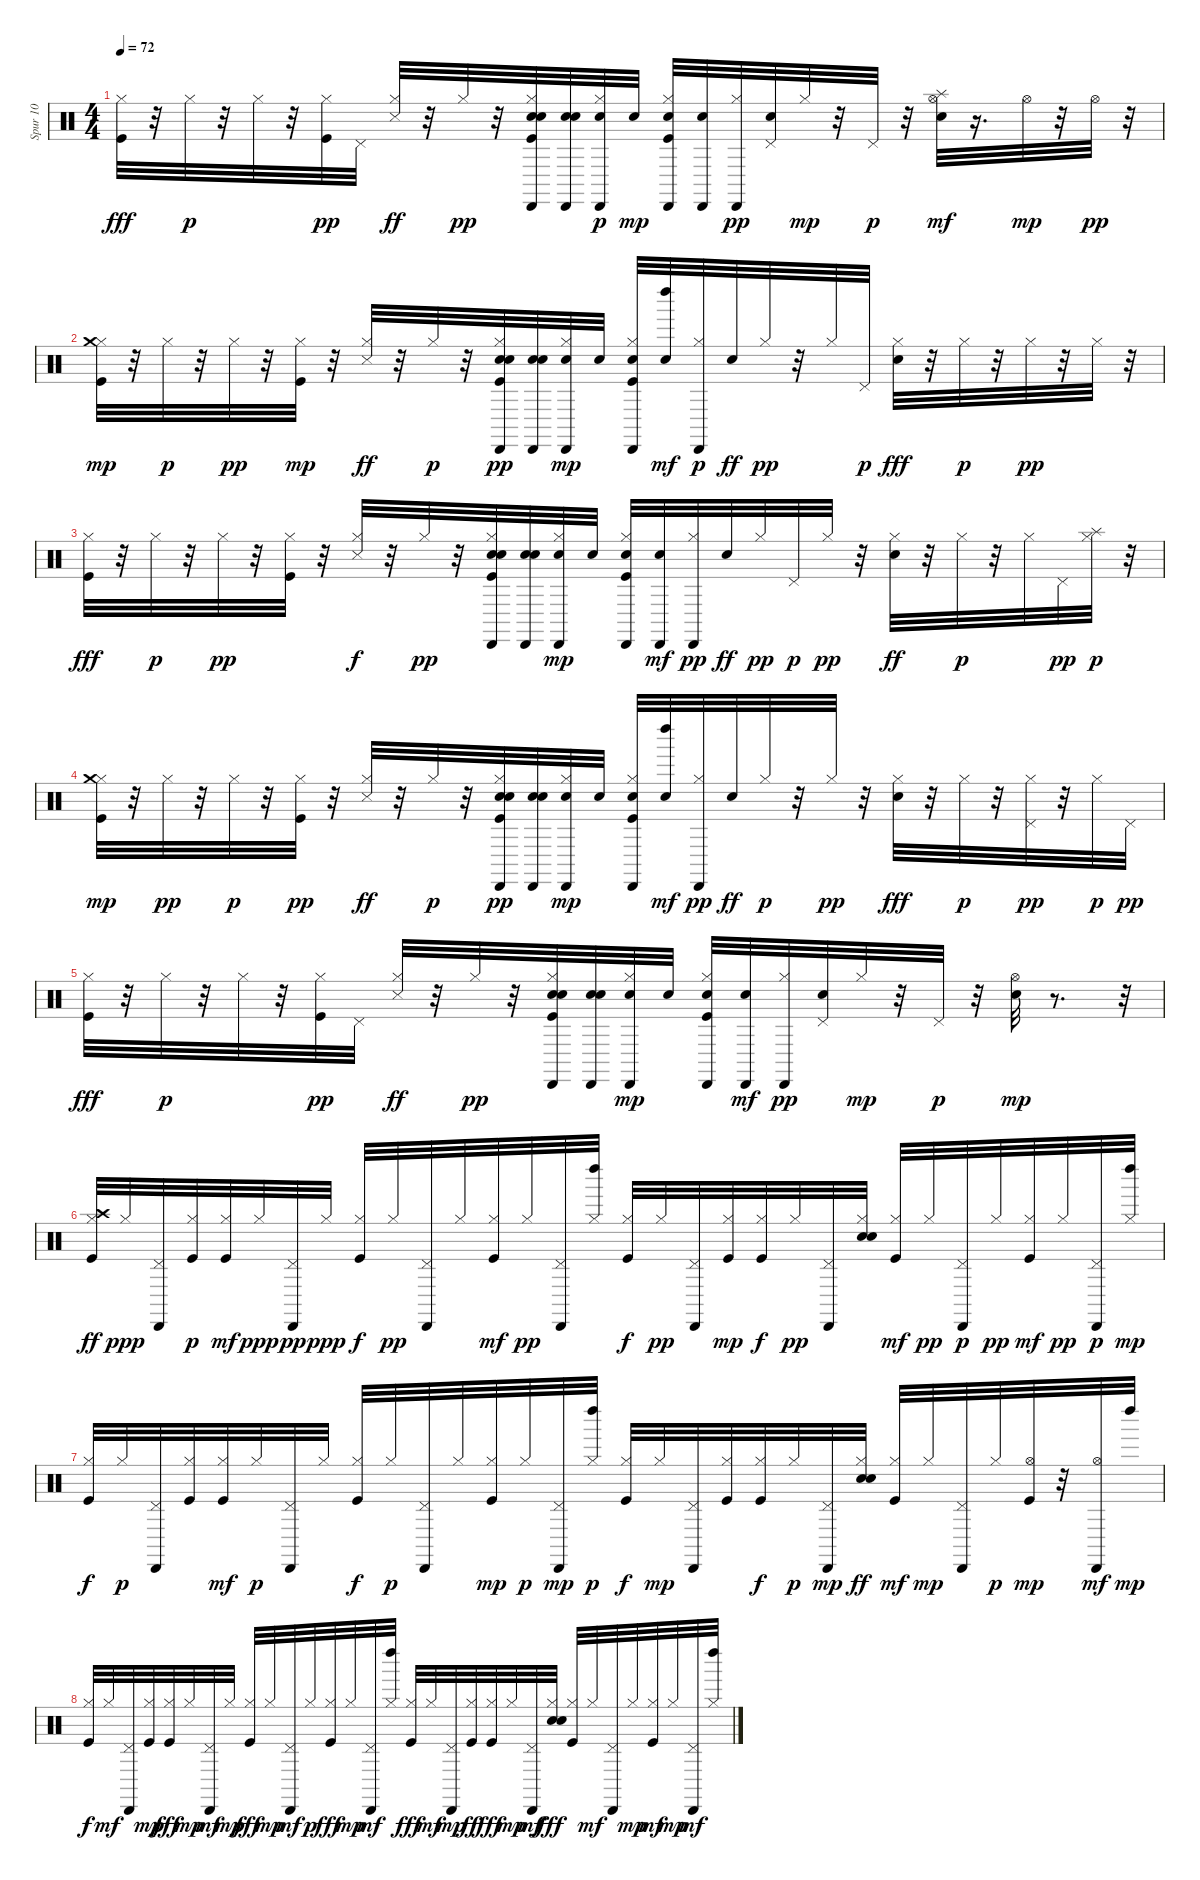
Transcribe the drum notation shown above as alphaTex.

\track ("Spur 10" "Spur 10") {instrument percussion}
\staff {score}
\articulation defaults
\ts (4 4)
\tempo 72
\clef neutral
\ks c
("Kick (hit)" "Hi-Hat (closed)").32{dy fff} r.32 "Hi-Hat (closed)".32{dy p} r.32 "Hi-Hat (closed)".32 r.32 ("Kick (hit)" "Hi-Hat (closed)").32{dy pp} "Pedal Hi-Hat (hit)".32 ("Hi-Hat (closed)" "Snare (side stick) 3").32{dy ff} r.32 "Hi-Hat (closed)".32{dy pp} r.32 ("Snare (hit) 2" "Kick (hit)" "Hi-Hat (closed)" "Cabasa (hit)" "Snare (hit) 2").32 ("Cabasa (hit)" "Snare (hit) 2" "Snare (hit) 2").32 ("Hi-Hat (closed)" "Cabasa (hit)" "Snare (hit) 2").32{dy p} "Snare (hit) 2".32{dy mp} ("Snare (hit) 2" "Kick (hit)" "Hi-Hat (closed)" "Cabasa (hit)").32 ("Cabasa (hit)" "Snare (hit) 2").32 ("Cabasa (hit)" "Hi-Hat (closed)").32{dy pp} ("Snare (hit) 2" "Pedal Hi-Hat (hit)").32 "Hi-Hat (closed)".32{dy mp} r.32 "Pedal Hi-Hat (hit)".32{dy p} r.32 ("Hi-Hat (open)" "Electric Snare (hit)" "Splash (hit)").32{dy mf} r.16{d} "Hi-Hat (open)".32{dy mp} r.32 "Hi-Hat (open)".32{dy pp} r.32 |
("Kick (hit)" "Hi-Hat (closed)" "Crash medium (hit)").32{dy mp} r.32 "Hi-Hat (closed)".32{dy p} r.32 "Hi-Hat (closed)".32{dy pp} r.32 ("Hi-Hat (closed)" "Kick (hit)").32{dy mp} r.32 ("Snare (side stick) 3" "Hi-Hat (closed)").32{dy ff} r.32 "Hi-Hat (closed)".32{dy p} r.32 ("Snare (hit) 2" "Kick (hit)" "Hi-Hat (closed)" "Cabasa (hit)" "Snare (hit) 2").32{dy pp} ("Cabasa (hit)" "Snare (hit) 2" "Snare (hit) 2").32 ("Hi-Hat (closed)" "Cabasa (hit)" "Snare (hit) 2").32{dy mp} "Snare (hit) 2".32 ("Snare (hit) 2" "Kick (hit)" "Cabasa (hit)" "Hi-Hat (closed)").32 ("Left Maraca (hit)" "Snare (hit) 2").32{dy mf} ("Cabasa (hit)" "Hi-Hat (closed)").32{dy p} "Snare (hit) 2".32{dy ff} "Hi-Hat (closed)".32{dy pp} r.32 "Hi-Hat (closed)".32 "Pedal Hi-Hat (hit)".32{dy p} ("Electric Snare (hit)" "Hi-Hat (closed)").32{dy fff} r.32 "Hi-Hat (closed)".32{dy p} r.32 "Hi-Hat (closed)".32{dy pp} r.32 "Hi-Hat (closed)".32 r.32 |
("Kick (hit)" "Hi-Hat (closed)").32{dy fff} r.32 "Hi-Hat (closed)".32{dy p} r.32 "Hi-Hat (closed)".32{dy pp} r.32 ("Kick (hit)" "Hi-Hat (closed)").32 r.32 ("Snare (side stick) 3" "Hi-Hat (closed)").32{dy f} r.32 "Hi-Hat (closed)".32{dy pp} r.32 ("Snare (hit) 2" "Kick (hit)" "Hi-Hat (closed)" "Cabasa (hit)" "Snare (hit) 2").32 ("Cabasa (hit)" "Snare (hit) 2" "Snare (hit) 2").32 ("Hi-Hat (closed)" "Cabasa (hit)" "Snare (hit) 2").32{dy mp} "Snare (hit) 2".32 ("Snare (hit) 2" "Kick (hit)" "Hi-Hat (closed)" "Cabasa (hit)").32 ("Cabasa (hit)" "Snare (hit) 2").32{dy mf} ("Cabasa (hit)" "Hi-Hat (closed)").32{dy pp} "Snare (hit) 2".32{dy ff} "Hi-Hat (closed)".32{dy pp} "Pedal Hi-Hat (hit)".32{dy p} "Hi-Hat (closed)".32{dy pp} r.32 ("Electric Snare (hit)" "Hi-Hat (closed)").32{dy ff} r.32 "Hi-Hat (closed)".32{dy p} r.32 "Hi-Hat (closed)".32 "Pedal Hi-Hat (hit)".32{dy pp} ("Splash (hit)" "Hi-Hat (closed)").32{dy p} r.32 |
("Kick (hit)" "Hi-Hat (closed)" "Crash medium (hit)").32{dy mp} r.32 "Hi-Hat (closed)".32{dy pp} r.32 "Hi-Hat (closed)".32{dy p} r.32 ("Kick (hit)" "Hi-Hat (closed)").32{dy pp} r.32 ("Hi-Hat (closed)" "Snare (side stick) 3").32{dy ff} r.32 "Hi-Hat (closed)".32{dy p} r.32 ("Snare (hit) 2" "Kick (hit)" "Hi-Hat (closed)" "Cabasa (hit)" "Snare (hit) 2").32{dy pp} ("Cabasa (hit)" "Snare (hit) 2" "Snare (hit) 2").32 ("Hi-Hat (closed)" "Cabasa (hit)" "Snare (hit) 2").32{dy mp} "Snare (hit) 2".32 ("Snare (hit) 2" "Kick (hit)" "Hi-Hat (closed)" "Cabasa (hit)").32 ("Left Maraca (hit)" "Snare (hit) 2").32{dy mf} ("Cabasa (hit)" "Hi-Hat (closed)").32{dy pp} "Snare (hit) 2".32{dy ff} "Hi-Hat (closed)".32{dy p} r.32 "Hi-Hat (closed)".32{dy pp} r.32 ("Electric Snare (hit)" "Hi-Hat (closed)").32{dy fff} r.32 "Hi-Hat (closed)".32{dy p} r.32 ("Hi-Hat (closed)" "Pedal Hi-Hat (hit)").32{dy pp} r.32 "Hi-Hat (closed)".32{dy p} "Pedal Hi-Hat (hit)".32{dy pp} |
("Kick (hit)" "Hi-Hat (closed)").32{dy fff} r.32 "Hi-Hat (closed)".32{dy p} r.32 "Hi-Hat (closed)".32 r.32 ("Kick (hit)" "Hi-Hat (closed)").32{dy pp} "Pedal Hi-Hat (hit)".32 ("Hi-Hat (closed)" "Snare (side stick) 3").32{dy ff} r.32 "Hi-Hat (closed)".32{dy pp} r.32 ("Snare (hit) 2" "Kick (hit)" "Hi-Hat (closed)" "Cabasa (hit)" "Snare (hit) 2").32 ("Cabasa (hit)" "Snare (hit) 2" "Snare (hit) 2").32 ("Hi-Hat (closed)" "Cabasa (hit)" "Snare (hit) 2").32{dy mp} "Snare (hit) 2".32 ("Snare (hit) 2" "Kick (hit)" "Hi-Hat (closed)" "Cabasa (hit)").32 ("Cabasa (hit)" "Snare (hit) 2").32{dy mf} ("Cabasa (hit)" "Hi-Hat (closed)").32{dy pp} ("Snare (hit) 2" "Pedal Hi-Hat (hit)").32 "Hi-Hat (closed)".32{dy mp} r.32 "Pedal Hi-Hat (hit)".32{dy p} r.32 ("Electric Snare (hit)" "Hi-Hat (open)").32{dy mp} r.8{d} r.32 |
("Kick (hit)" "Hi-Hat (closed)" "Crash high (hit)").32{dy ff} "Hi-Hat (closed)".32{dy ppp} ("Pedal Hi-Hat (hit)" "Cabasa (hit)").32 ("Hi-Hat (closed)" "Kick (hit)").32{dy p} ("Hi-Hat (closed)" "Kick (hit)").32{dy mf} "Hi-Hat (closed)".32{dy ppp} ("Pedal Hi-Hat (hit)" "Cabasa (hit)").32{dy pp} "Hi-Hat (closed)".32{dy ppp} ("Hi-Hat (closed)" "Kick (hit)").32{dy f} "Hi-Hat (closed)".32{dy pp} ("Pedal Hi-Hat (hit)" "Cabasa (hit)").32 "Hi-Hat (closed)".32 ("Kick (hit)" "Hi-Hat (closed)").32{dy mf} "Hi-Hat (closed)".32{dy pp} ("Pedal Hi-Hat (hit)" "Cabasa (hit)").32 ("Left Maraca (hit)" "Hi-Hat (closed)").32 ("Kick (hit)" "Hi-Hat (closed)").32{dy f} "Hi-Hat (closed)".32{dy pp} ("Pedal Hi-Hat (hit)" "Cabasa (hit)").32 ("Hi-Hat (closed)" "Kick (hit)").32{dy mp} ("Hi-Hat (closed)" "Kick (hit)").32{dy f} "Hi-Hat (closed)".32{dy pp} ("Pedal Hi-Hat (hit)" "Cabasa (hit)").32 ("Hand Clap (hit)" "Electric Snare (hit)" "Hi-Hat (closed)").32 ("Hi-Hat (closed)" "Kick (hit)").32{dy mf} "Hi-Hat (closed)".32{dy pp} ("Pedal Hi-Hat (hit)" "Cabasa (hit)").32{dy p} "Hi-Hat (closed)".32{dy pp} ("Kick (hit)" "Hi-Hat (closed)").32{dy mf} "Hi-Hat (closed)".32{dy pp} ("Cabasa (hit)" "Pedal Hi-Hat (hit)").32{dy p} ("Left Maraca (hit)" "Hi-Hat (closed)").32{dy mp} |
("Kick (hit)" "Hi-Hat (closed)").32{dy f} "Hi-Hat (closed)".32{dy p} ("Pedal Hi-Hat (hit)" "Cabasa (hit)").32 ("Hi-Hat (closed)" "Kick (hit)").32 ("Hi-Hat (closed)" "Kick (hit)").32{dy mf} "Hi-Hat (closed)".32{dy p} ("Pedal Hi-Hat (hit)" "Cabasa (hit)").32 "Hi-Hat (closed)".32 ("Hi-Hat (closed)" "Kick (hit)").32{dy f} "Hi-Hat (closed)".32{dy p} ("Pedal Hi-Hat (hit)" "Cabasa (hit)").32 "Hi-Hat (closed)".32 ("Kick (hit)" "Hi-Hat (closed)").32{dy mp} "Hi-Hat (closed)".32{dy p} ("Pedal Hi-Hat (hit)" "Cabasa (hit)").32{dy mp} ("Left Maraca (hit)" "Hi-Hat (closed)").32{dy p} ("Kick (hit)" "Hi-Hat (closed)").32{dy f} "Hi-Hat (closed)".32{dy mp} ("Pedal Hi-Hat (hit)" "Cabasa (hit)").32 ("Hi-Hat (closed)" "Kick (hit)").32 ("Hi-Hat (closed)" "Kick (hit)").32{dy f} "Hi-Hat (closed)".32{dy p} ("Pedal Hi-Hat (hit)" "Cabasa (hit)").32{dy mp} ("Hi-Hat (closed)" "Hand Clap (hit)" "Electric Snare (hit)").32{dy ff} ("Hi-Hat (closed)" "Kick (hit)").32{dy mf} "Hi-Hat (closed)".32{dy mp} ("Pedal Hi-Hat (hit)" "Cabasa (hit)").32 "Hi-Hat (closed)".32{dy p} ("Kick (hit)" "Hi-Hat (open)").32{dy mp} r.32 ("Cabasa (hit)" "Hi-Hat (open)").32{dy mf} "Left Maraca (hit)".32{dy mp} |
("Kick (hit)" "Hi-Hat (closed)").32{dy f} "Hi-Hat (closed)".32{dy mf} ("Pedal Hi-Hat (hit)" "Cabasa (hit)").32 ("Hi-Hat (closed)" "Kick (hit)").32{dy mp} ("Hi-Hat (closed)" "Kick (hit)").32{dy fff} "Hi-Hat (closed)".32{dy mp} ("Pedal Hi-Hat (hit)" "Cabasa (hit)").32{dy mf} "Hi-Hat (closed)".32{dy mp} ("Hi-Hat (closed)" "Kick (hit)").32{dy fff} "Hi-Hat (closed)".32{dy mp} ("Pedal Hi-Hat (hit)" "Cabasa (hit)").32{dy mf} "Hi-Hat (closed)".32{dy p} ("Kick (hit)" "Hi-Hat (closed)").32{dy fff} "Hi-Hat (closed)".32{dy mp} ("Pedal Hi-Hat (hit)" "Cabasa (hit)").32{dy mf} ("Hi-Hat (closed)" "Left Maraca (hit)").32 ("Kick (hit)" "Hi-Hat (closed)").32{dy fff} "Hi-Hat (closed)".32{dy mf} ("Pedal Hi-Hat (hit)" "Cabasa (hit)").32{dy mp} ("Hi-Hat (closed)" "Kick (hit)").32{dy ff} ("Hi-Hat (closed)" "Kick (hit)").32{dy fff} "Hi-Hat (closed)".32{dy mp} ("Pedal Hi-Hat (hit)" "Cabasa (hit)").32{dy mf} ("Hi-Hat (closed)" "Electric Snare (hit)" "Hand Clap (hit)").32{dy fff} ("Hi-Hat (closed)" "Kick (hit)").32 "Hi-Hat (closed)".32{dy mf} ("Pedal Hi-Hat (hit)" "Cabasa (hit)").32 "Hi-Hat (closed)".32{dy mp} ("Kick (hit)" "Hi-Hat (closed)").32{dy mf} "Hi-Hat (closed)".32{dy mp} ("Pedal Hi-Hat (hit)" "Cabasa (hit)").32{dy mf} ("Hi-Hat (closed)" "Left Maraca (hit)").32
